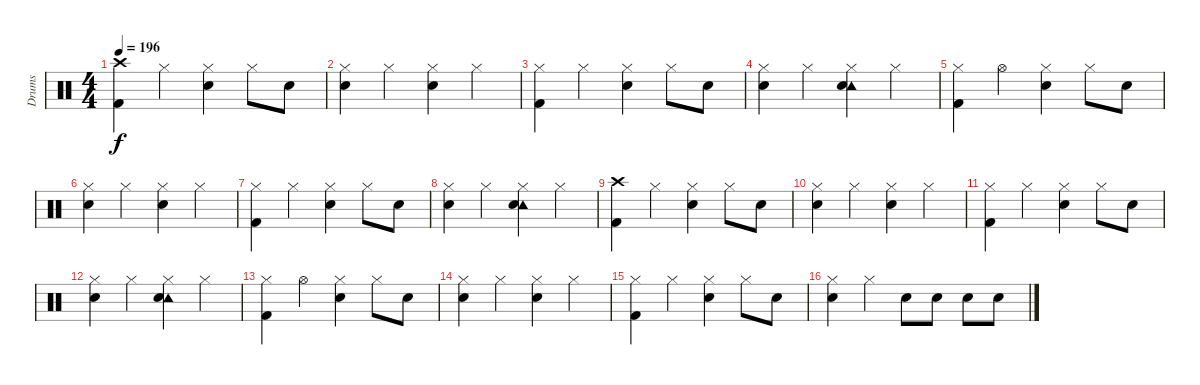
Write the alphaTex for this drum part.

\track ("Drums" "Drums") {instrument percussion}
\staff {score}
\articulation defaults
\ts (4 4)
\tempo 196
\clef neutral
\ks c
("Crash high (hit)" "Kick (hit) 2").4{dy f} "Hi-Hat (closed)".4 ("Hi-Hat (closed)" "Snare (hit) 2").4 "Hi-Hat (closed)".8 "Snare (hit) 2".8 |
("Hi-Hat (closed)" "Snare (hit) 2").4 "Hi-Hat (closed)".4 ("Hi-Hat (closed)" "Snare (hit) 2").4 "Hi-Hat (closed)".4 |
("Hi-Hat (closed)" "Kick (hit) 2").4 "Hi-Hat (closed)".4 ("Hi-Hat (closed)" "Snare (hit) 2").4 "Hi-Hat (closed)".8 "Snare (hit) 2".8 |
("Hi-Hat (closed)" "Snare (hit) 2").4 "Hi-Hat (closed)".4 ("Hi-Hat (closed)" "Tambourine (hit)" "Snare (hit) 2").4 "Hi-Hat (closed)".4 |
("Hi-Hat (closed)" "Kick (hit) 2").4 "Hi-Hat (open)".4 ("Hi-Hat (closed)" "Snare (hit) 2").4 "Hi-Hat (closed)".8 "Snare (hit) 2".8 |
("Hi-Hat (closed)" "Snare (hit) 2").4 "Hi-Hat (closed)".4 ("Hi-Hat (closed)" "Snare (hit) 2").4 "Hi-Hat (closed)".4 |
("Hi-Hat (closed)" "Kick (hit) 2").4 "Hi-Hat (closed)".4 ("Hi-Hat (closed)" "Snare (hit) 2").4 "Hi-Hat (closed)".8 "Snare (hit) 2".8 |
("Hi-Hat (closed)" "Snare (hit) 2").4 "Hi-Hat (closed)".4 ("Hi-Hat (closed)" "Tambourine (hit)" "Snare (hit) 2").4 "Hi-Hat (closed)".4 |
("Crash high (hit)" "Kick (hit) 2").4 "Hi-Hat (closed)".4 ("Hi-Hat (closed)" "Snare (hit) 2").4 "Hi-Hat (closed)".8 "Snare (hit) 2".8 |
("Hi-Hat (closed)" "Snare (hit) 2").4 "Hi-Hat (closed)".4 ("Hi-Hat (closed)" "Snare (hit) 2").4 "Hi-Hat (closed)".4 |
("Hi-Hat (closed)" "Kick (hit) 2").4 "Hi-Hat (closed)".4 ("Hi-Hat (closed)" "Snare (hit) 2").4 "Hi-Hat (closed)".8 "Snare (hit) 2".8 |
("Hi-Hat (closed)" "Snare (hit) 2").4 "Hi-Hat (closed)".4 ("Hi-Hat (closed)" "Tambourine (hit)" "Snare (hit) 2").4 "Hi-Hat (closed)".4 |
("Hi-Hat (closed)" "Kick (hit) 2").4 "Hi-Hat (open)".4 ("Hi-Hat (closed)" "Snare (hit) 2").4 "Hi-Hat (closed)".8 "Snare (hit) 2".8 |
("Hi-Hat (closed)" "Snare (hit) 2").4 "Hi-Hat (closed)".4 ("Hi-Hat (closed)" "Snare (hit) 2").4 "Hi-Hat (closed)".4 |
("Hi-Hat (closed)" "Kick (hit) 2").4 "Hi-Hat (closed)".4 ("Hi-Hat (closed)" "Snare (hit) 2").4 "Hi-Hat (closed)".8 "Snare (hit) 2".8 |
("Hi-Hat (closed)" "Snare (hit) 2").4 "Hi-Hat (closed)".4 "Snare (hit) 2".8 "Snare (hit) 2".8 "Snare (hit) 2".8 "Snare (hit) 2".8
